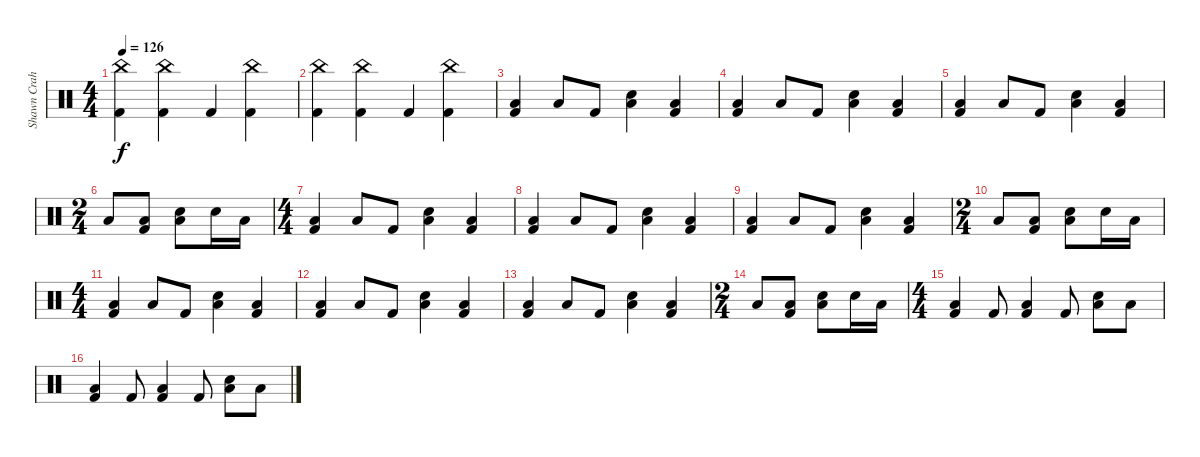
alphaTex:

\track ("Shawn Crahan" "Shawn Crah") {instrument percussion}
\staff {score}
\articulation defaults
\ts (4 4)
\tempo 126
\clef neutral
\ks c
("China (hit)" "Kick (hit) 2").4{dy f} ("China (hit)" "Kick (hit) 2").4 "Kick (hit) 2".4 ("China (hit)" "Kick (hit) 2").4 |
("China (hit)" "Kick (hit) 2").4 ("China (hit)" "Kick (hit) 2").4 "Kick (hit) 2".4 ("China (hit)" "Kick (hit) 2").4 |
("Low Tom (hit)" "Kick (hit) 2").4 "Low Tom (hit)".8 "Kick (hit) 2".8 ("Low Tom (hit)" "Electric Snare (hit)").4 ("Low Tom (hit)" "Kick (hit) 2").4 |
("Low Tom (hit)" "Kick (hit) 2").4 "Low Tom (hit)".8 "Kick (hit) 2".8 ("Low Tom (hit)" "Snare (hit) 2").4 ("Low Tom (hit)" "Kick (hit) 2").4 |
("Low Tom (hit)" "Kick (hit) 2").4 "Low Tom (hit)".8 "Kick (hit) 2".8 ("Low Tom (hit)" "Snare (hit) 2").4 ("Low Tom (hit)" "Kick (hit) 2").4 |
\ts (2 4)
"Low Tom (hit)".8 ("Low Tom (hit)" "Kick (hit) 2").8 ("Low Tom (hit)" "Snare (hit) 2").8 "Snare (hit) 2".16 "Low Tom (hit)".16 |
\ts (4 4)
("Low Tom (hit)" "Kick (hit) 2").4 "Low Tom (hit)".8 "Kick (hit) 2".8 ("Low Tom (hit)" "Electric Snare (hit)").4 ("Low Tom (hit)" "Kick (hit) 2").4 |
("Low Tom (hit)" "Kick (hit) 2").4 "Low Tom (hit)".8 "Kick (hit) 2".8 ("Low Tom (hit)" "Snare (hit) 2").4 ("Low Tom (hit)" "Kick (hit) 2").4 |
("Low Tom (hit)" "Kick (hit) 2").4 "Low Tom (hit)".8 "Kick (hit) 2".8 ("Low Tom (hit)" "Snare (hit) 2").4 ("Low Tom (hit)" "Kick (hit) 2").4 |
\ts (2 4)
"Low Tom (hit)".8 ("Low Tom (hit)" "Kick (hit) 2").8 ("Low Tom (hit)" "Snare (hit) 2").8 "Snare (hit) 2".16 "Low Tom (hit)".16 |
\ts (4 4)
("Low Tom (hit)" "Kick (hit) 2").4 "Low Tom (hit)".8 "Kick (hit) 2".8 ("Low Tom (hit)" "Electric Snare (hit)").4 ("Low Tom (hit)" "Kick (hit) 2").4 |
("Low Tom (hit)" "Kick (hit) 2").4 "Low Tom (hit)".8 "Kick (hit) 2".8 ("Low Tom (hit)" "Snare (hit) 2").4 ("Low Tom (hit)" "Kick (hit) 2").4 |
("Low Tom (hit)" "Kick (hit) 2").4 "Low Tom (hit)".8 "Kick (hit) 2".8 ("Low Tom (hit)" "Snare (hit) 2").4 ("Low Tom (hit)" "Kick (hit) 2").4 |
\ts (2 4)
"Low Tom (hit)".8 ("Low Tom (hit)" "Kick (hit) 2").8 ("Low Tom (hit)" "Snare (hit) 2").8 "Snare (hit) 2".16 "Low Tom (hit)".16 |
\ts (4 4)
("Low Tom (hit)" "Kick (hit) 2").4 "Kick (hit) 2".8 ("Low Tom (hit)" "Kick (hit) 2").4 "Kick (hit) 2".8 ("Low Tom (hit)" "Snare (hit) 2").8 "Low Tom (hit)".8 |
("Low Tom (hit)" "Kick (hit) 2").4 "Kick (hit) 2".8 ("Low Tom (hit)" "Kick (hit) 2").4 "Kick (hit) 2".8 ("Low Tom (hit)" "Snare (hit) 2").8 "Low Tom (hit)".8
